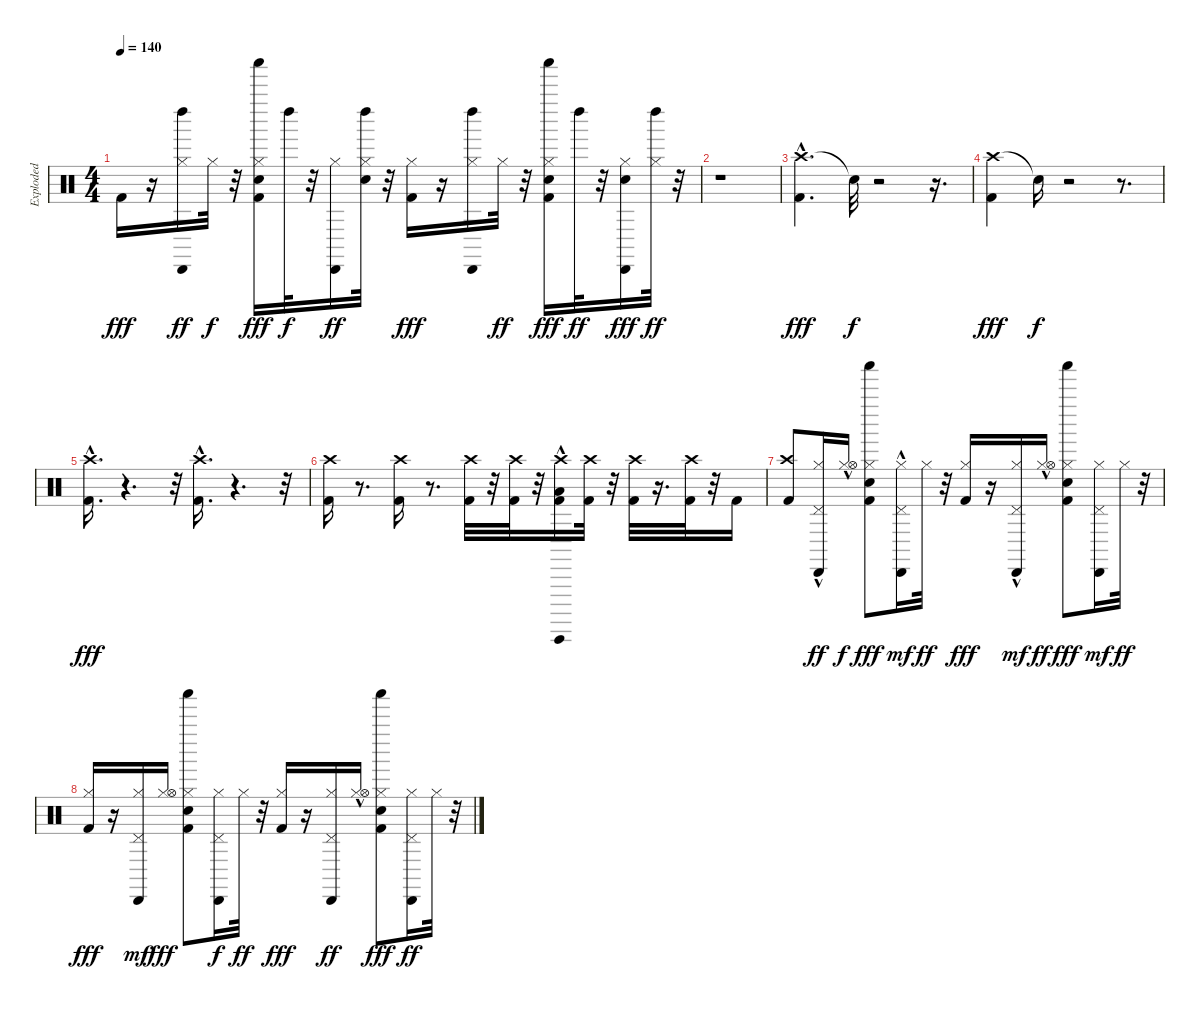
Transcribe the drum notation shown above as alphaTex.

\track ("Exploded" "Exploded") {instrument percussion}
\staff {score}
\articulation defaults
\ts (4 4)
\tempo 140
\clef neutral
\ks c "Kick (hit) 2".16{dy fff}
r.16 ("Left Maraca (hit)" "Cabasa (hit)" "Hi-Hat (closed)").16{dy ff} "Hi-Hat (closed)".32{dy f} r.32 ("Hand Clap (hit)" "Shaker (hit)" "Hi-Hat (closed)" "Kick (hit) 2").16{dy fff} "Left Maraca (hit)".32{dy f} r.32 ("Cabasa (hit)" "Hi-Hat (closed)").16{dy ff} ("Snare (hit) 2" "Left Maraca (hit)" "Hi-Hat (closed)").32 r.32 ("Hi-Hat (closed)" "Kick (hit) 2").16{dy fff} r.16 ("Left Maraca (hit)" "Cabasa (hit)" "Hi-Hat (closed)").16 "Hi-Hat (closed)".32{dy ff} r.32 ("Hand Clap (hit)" "Shaker (hit)" "Hi-Hat (closed)" "Kick (hit) 2").16{dy fff} "Left Maraca (hit)".32{dy ff} r.32 ("Snare (hit) 2" "Cabasa (hit)" "Hi-Hat (closed)").16{dy fff} ("Left Maraca (hit)" "Hi-Hat (closed)").32{dy ff} r.32 |
r.1 |
("Crash high (hit)"{hac} "Kick (hit) 2").4{d dy fff} "Snare (hit)"{t}.32{dy f} r.2 r.16{d} |
("Crash high (hit)" "Kick (hit) 2").4{dy fff} "Snare (hit)"{t}.16{dy f} r.2 r.8{d} |
("Crash high (hit)"{hac} "Kick (hit) 2"{hac}).16{d dy fff} r.4{d} r.32 ("Crash high (hit)"{hac} "Kick (hit) 2"{hac}).16{d} r.4{d} r.32 |
("Crash high (hit)" "Kick (hit) 2").16 r.8{d} ("Crash high (hit)" "Kick (hit) 2").16 r.8{d} ("Crash high (hit)" "Kick (hit) 2").32 r.32 ("Crash high (hit)" "Kick (hit) 2").32 r.32 ("Guiro (hit)"{hac} "Low Floor Tom (hit)" "Crash high (hit)" "Kick (hit) 2").16 ("Crash high (hit)" "Kick (hit) 2").32 r.32 ("Crash high (hit)" "Kick (hit) 2").32 r.16{d} ("Crash high (hit)" "Kick (hit) 2").32 r.32 "Kick (hit) 2".16 |
("Crash high (hit)" "Kick (hit) 2").8 ("Cabasa (hit)" "Hi-Hat (closed)" "Pedal Hi-Hat (hit)"{hac}).16{dy ff} ("Hi-Hat (closed)" "Hi-Hat (open)"{hac}).16{dy f} ("Hand Clap (hit)" "Shaker (hit)" "Hi-Hat (closed)" "Kick (hit) 2").8{dy fff} ("Cabasa (hit)"{hac} "Hi-Hat (closed)" "Pedal Hi-Hat (hit)"{hac}).16{dy mf} "Hi-Hat (closed)".32{dy ff} r.32 ("Hi-Hat (closed)" "Kick (hit) 2").16{dy fff} r.16 ("Cabasa (hit)" "Hi-Hat (closed)" "Pedal Hi-Hat (hit)"{hac}).16{dy mf} ("Hi-Hat (closed)" "Hi-Hat (open)"{hac}).16{dy ff} ("Hand Clap (hit)" "Shaker (hit)" "Hi-Hat (closed)" "Kick (hit) 2").8{dy fff} ("Cabasa (hit)" "Hi-Hat (closed)" "Pedal Hi-Hat (hit)").16{dy mf} "Hi-Hat (closed)".32{dy ff} r.32 |
("Hi-Hat (closed)" "Kick (hit) 2").16{dy fff} r.16 ("Cabasa (hit)" "Hi-Hat (closed)" "Pedal Hi-Hat (hit)").16{dy mf} ("Hi-Hat (closed)" "Hi-Hat (open)").16{dy fff} ("Hand Clap (hit)" "Shaker (hit)" "Hi-Hat (closed)" "Kick (hit) 2").8 ("Cabasa (hit)" "Hi-Hat (closed)" "Pedal Hi-Hat (hit)").16{dy f} "Hi-Hat (closed)".32{dy ff} r.32 ("Hi-Hat (closed)" "Kick (hit) 2").16{dy fff} r.16 ("Cabasa (hit)" "Hi-Hat (closed)" "Pedal Hi-Hat (hit)").16{dy ff} ("Hi-Hat (closed)" "Hi-Hat (open)"{hac}).16 ("Hand Clap (hit)" "Shaker (hit)" "Hi-Hat (closed)" "Kick (hit) 2").8{dy fff} ("Cabasa (hit)" "Hi-Hat (closed)" "Pedal Hi-Hat (hit)").16{dy ff} "Hi-Hat (closed)".32 r.32
